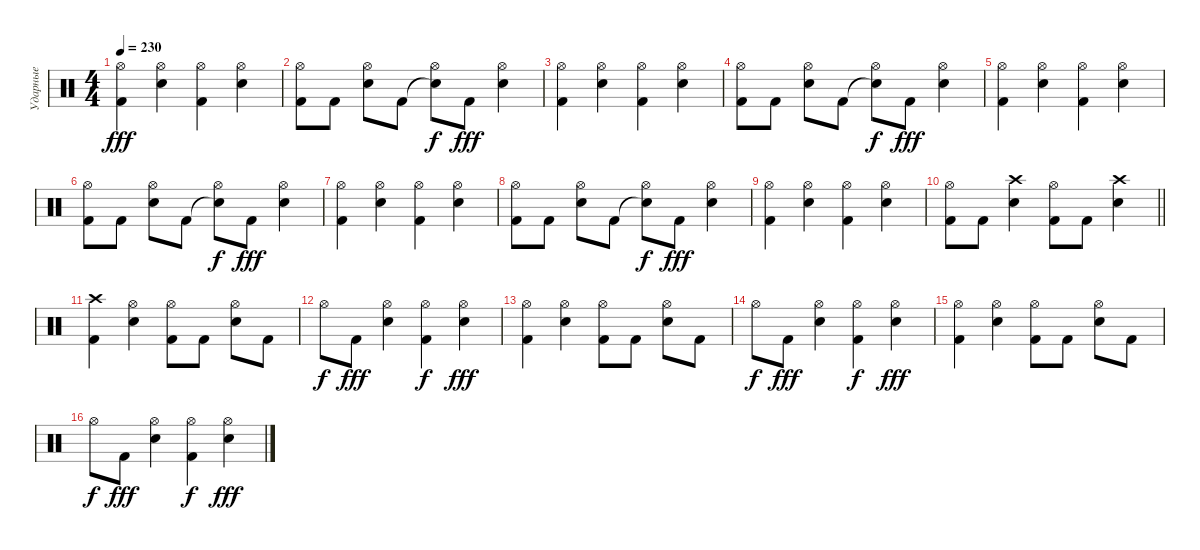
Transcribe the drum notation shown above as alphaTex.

\track ("Ударные" "Ударные") {instrument percussion}
\staff {score}
\articulation defaults
\ts (4 4)
\tempo 230
\clef neutral
\ks c
("Kick (hit) 2" "Hi-Hat (open)").4{dy fff} ("Snare (hit) 2" "Hi-Hat (open)").4 ("Kick (hit) 2" "Hi-Hat (open)").4 ("Snare (hit) 2" "Hi-Hat (open)").4 |
("Kick (hit) 2" "Hi-Hat (open)").8 "Kick (hit) 2".8 ("Snare (hit) 2" "Hi-Hat (open)").8 "Kick (hit) 2".8 ("Snare (hit)"{t} "Hi-Hat (open)").8{dy f} "Kick (hit) 2".8{dy fff} ("Snare (hit) 2" "Hi-Hat (open)").4 |
("Kick (hit) 2" "Hi-Hat (open)").4 ("Snare (hit) 2" "Hi-Hat (open)").4 ("Kick (hit) 2" "Hi-Hat (open)").4 ("Snare (hit) 2" "Hi-Hat (open)").4 |
("Kick (hit) 2" "Hi-Hat (open)").8 "Kick (hit) 2".8 ("Snare (hit) 2" "Hi-Hat (open)").8 "Kick (hit) 2".8 ("Snare (hit)"{t} "Hi-Hat (open)").8{dy f} "Kick (hit) 2".8{dy fff} ("Snare (hit) 2" "Hi-Hat (open)").4 |
("Kick (hit) 2" "Hi-Hat (open)").4 ("Snare (hit) 2" "Hi-Hat (open)").4 ("Kick (hit) 2" "Hi-Hat (open)").4 ("Snare (hit) 2" "Hi-Hat (open)").4 |
("Kick (hit) 2" "Hi-Hat (open)").8 "Kick (hit) 2".8 ("Snare (hit) 2" "Hi-Hat (open)").8 "Kick (hit) 2".8 ("Snare (hit)"{t} "Hi-Hat (open)").8{dy f} "Kick (hit) 2".8{dy fff} ("Snare (hit) 2" "Hi-Hat (open)").4 |
("Kick (hit) 2" "Hi-Hat (open)").4 ("Snare (hit) 2" "Hi-Hat (open)").4 ("Kick (hit) 2" "Hi-Hat (open)").4 ("Snare (hit) 2" "Hi-Hat (open)").4 |
("Kick (hit) 2" "Hi-Hat (open)").8 "Kick (hit) 2".8 ("Snare (hit) 2" "Hi-Hat (open)").8 "Kick (hit) 2".8 ("Snare (hit)"{t} "Hi-Hat (open)").8{dy f} "Kick (hit) 2".8{dy fff} ("Snare (hit) 2" "Hi-Hat (open)").4 |
("Kick (hit) 2" "Hi-Hat (open)").4 ("Snare (hit) 2" "Hi-Hat (open)").4 ("Kick (hit) 2" "Hi-Hat (open)").4 ("Snare (hit) 2" "Hi-Hat (open)").4 |
\barLineRight lightlight
("Kick (hit) 2" "Hi-Hat (open)").8 "Kick (hit) 2".8 ("Snare (hit) 2" "Crash high (hit)").4 ("Kick (hit) 2" "Hi-Hat (open)").8 "Kick (hit) 2".8 ("Snare (hit) 2" "Crash high (hit)").4 |
("Kick (hit) 2" "Crash high (hit)").4 ("Snare (hit) 2" "Hi-Hat (open)").4 ("Kick (hit) 2" "Hi-Hat (open)").8 "Kick (hit) 2".8 ("Snare (hit) 2" "Hi-Hat (open)").8 "Kick (hit) 2".8 |
"Hi-Hat (open)".8{dy f} "Kick (hit) 2".8{dy fff} ("Snare (hit) 2" "Hi-Hat (open)").4 ("Kick (hit) 2" "Hi-Hat (open)").4{dy f} ("Snare (hit) 2" "Hi-Hat (open)").4{dy fff} |
("Kick (hit) 2" "Hi-Hat (open)").4 ("Snare (hit) 2" "Hi-Hat (open)").4 ("Kick (hit) 2" "Hi-Hat (open)").8 "Kick (hit) 2".8 ("Snare (hit) 2" "Hi-Hat (open)").8 "Kick (hit) 2".8 |
"Hi-Hat (open)".8{dy f} "Kick (hit) 2".8{dy fff} ("Snare (hit) 2" "Hi-Hat (open)").4 ("Kick (hit) 2" "Hi-Hat (open)").4{dy f} ("Snare (hit) 2" "Hi-Hat (open)").4{dy fff} |
("Kick (hit) 2" "Hi-Hat (open)").4 ("Snare (hit) 2" "Hi-Hat (open)").4 ("Kick (hit) 2" "Hi-Hat (open)").8 "Kick (hit) 2".8 ("Snare (hit) 2" "Hi-Hat (open)").8 "Kick (hit) 2".8 |
"Hi-Hat (open)".8{dy f} "Kick (hit) 2".8{dy fff} ("Snare (hit) 2" "Hi-Hat (open)").4 ("Kick (hit) 2" "Hi-Hat (open)").4{dy f} ("Snare (hit) 2" "Hi-Hat (open)").4{dy fff}
